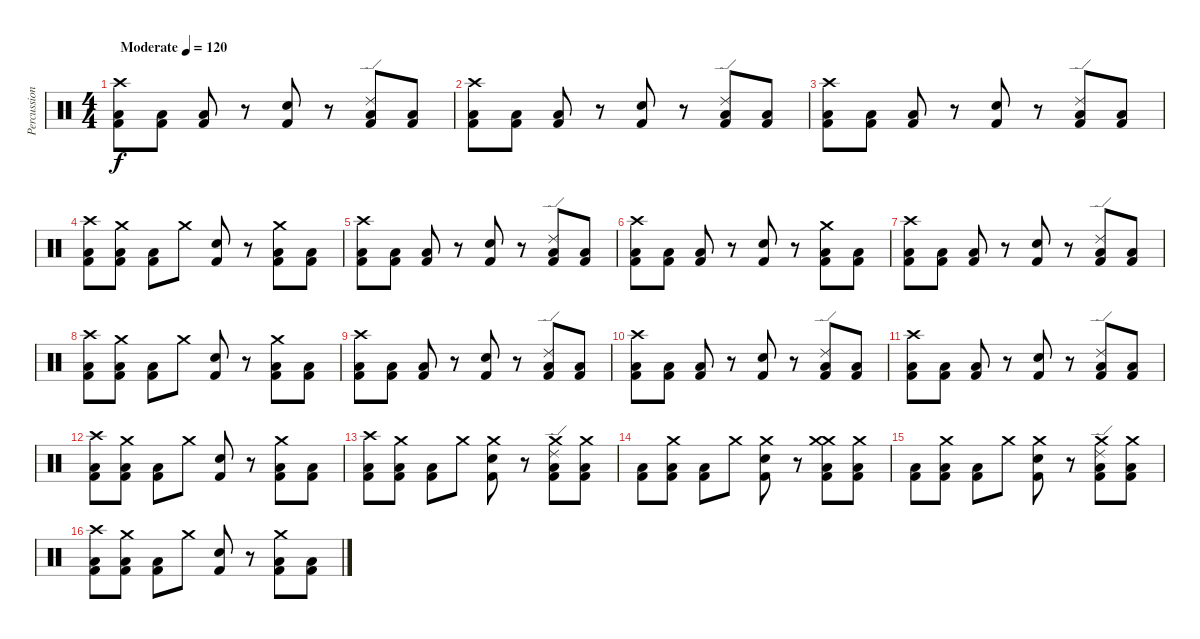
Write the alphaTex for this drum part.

\track ("Percussion" "Percussion") {instrument percussion}
\staff {score}
\articulation defaults
\ts (4 4)
\tempo (120 "Moderate")
\clef neutral
\ks c
("Kick (hit) 2" "Low Floor Tom (hit)" "Crash high (hit)").8{dy f} ("Kick (hit) 2" "Low Floor Tom (hit)").8 ("Kick (hit) 2" "Low Floor Tom (hit)").8 r.8 ("Kick (hit) 2" "Electric Snare (hit)").8 r.8 ("Kick (hit) 2" "Low Floor Tom (hit)" "Ride (edge) 2").8 ("Kick (hit) 2" "Low Floor Tom (hit)").8 |
("Kick (hit) 2" "Low Floor Tom (hit)" "Crash high (hit)").8 ("Kick (hit) 2" "Low Floor Tom (hit)").8 ("Kick (hit) 2" "Low Floor Tom (hit)").8 r.8 ("Kick (hit) 2" "Electric Snare (hit)").8 r.8 ("Kick (hit) 2" "Low Floor Tom (hit)" "Ride (edge) 2").8 ("Kick (hit) 2" "Low Floor Tom (hit)").8 |
("Kick (hit) 2" "Low Floor Tom (hit)" "Crash high (hit)").8 ("Kick (hit) 2" "Low Floor Tom (hit)").8 ("Kick (hit) 2" "Low Floor Tom (hit)").8 r.8 ("Kick (hit) 2" "Electric Snare (hit)").8 r.8 ("Kick (hit) 2" "Low Floor Tom (hit)" "Ride (edge) 2").8 ("Kick (hit) 2" "Low Floor Tom (hit)").8 |
("Kick (hit) 2" "Low Floor Tom (hit)" "Crash high (hit)").8 ("Kick (hit) 2" "Low Floor Tom (hit)" "Crash medium (hit)").8 ("Kick (hit) 2" "Low Floor Tom (hit)").8 "Crash medium (hit)".8 ("Kick (hit) 2" "Electric Snare (hit)").8 r.8 ("Kick (hit) 2" "Low Floor Tom (hit)" "Crash medium (hit)").8 ("Kick (hit) 2" "Low Floor Tom (hit)").8 |
("Kick (hit) 2" "Low Floor Tom (hit)" "Crash high (hit)").8 ("Kick (hit) 2" "Low Floor Tom (hit)").8 ("Kick (hit) 2" "Low Floor Tom (hit)").8 r.8 ("Kick (hit) 2" "Electric Snare (hit)").8 r.8 ("Kick (hit) 2" "Low Floor Tom (hit)" "Ride (edge) 2").8 ("Kick (hit) 2" "Low Floor Tom (hit)").8 |
("Kick (hit) 2" "Low Floor Tom (hit)" "Crash high (hit)").8 ("Kick (hit) 2" "Low Floor Tom (hit)").8 ("Kick (hit) 2" "Low Floor Tom (hit)").8 r.8 ("Kick (hit) 2" "Electric Snare (hit)").8 r.8 ("Kick (hit) 2" "Low Floor Tom (hit)" "Crash medium (hit)").8 ("Kick (hit) 2" "Low Floor Tom (hit)").8 |
("Kick (hit) 2" "Low Floor Tom (hit)" "Crash high (hit)").8 ("Kick (hit) 2" "Low Floor Tom (hit)").8 ("Kick (hit) 2" "Low Floor Tom (hit)").8 r.8 ("Kick (hit) 2" "Electric Snare (hit)").8 r.8 ("Kick (hit) 2" "Low Floor Tom (hit)" "Ride (edge) 2").8 ("Kick (hit) 2" "Low Floor Tom (hit)").8 |
("Kick (hit) 2" "Low Floor Tom (hit)" "Crash high (hit)").8 ("Kick (hit) 2" "Low Floor Tom (hit)" "Crash medium (hit)").8 ("Kick (hit) 2" "Low Floor Tom (hit)").8 "Crash medium (hit)".8 ("Kick (hit) 2" "Electric Snare (hit)").8 r.8 ("Kick (hit) 2" "Low Floor Tom (hit)" "Crash medium (hit)").8 ("Kick (hit) 2" "Low Floor Tom (hit)").8 |
("Kick (hit) 2" "Low Floor Tom (hit)" "Crash high (hit)").8 ("Kick (hit) 2" "Low Floor Tom (hit)").8 ("Kick (hit) 2" "Low Floor Tom (hit)").8 r.8 ("Kick (hit) 2" "Electric Snare (hit)").8 r.8 ("Kick (hit) 2" "Low Floor Tom (hit)" "Ride (edge) 2").8 ("Kick (hit) 2" "Low Floor Tom (hit)").8 |
("Kick (hit) 2" "Low Floor Tom (hit)" "Crash high (hit)").8 ("Kick (hit) 2" "Low Floor Tom (hit)").8 ("Kick (hit) 2" "Low Floor Tom (hit)").8 r.8 ("Kick (hit) 2" "Electric Snare (hit)").8 r.8 ("Kick (hit) 2" "Low Floor Tom (hit)" "Ride (edge) 2").8 ("Kick (hit) 2" "Low Floor Tom (hit)").8 |
("Kick (hit) 2" "Low Floor Tom (hit)" "Crash high (hit)").8 ("Kick (hit) 2" "Low Floor Tom (hit)").8 ("Kick (hit) 2" "Low Floor Tom (hit)").8 r.8 ("Kick (hit) 2" "Electric Snare (hit)").8 r.8 ("Kick (hit) 2" "Low Floor Tom (hit)" "Ride (edge) 2").8 ("Kick (hit) 2" "Low Floor Tom (hit)").8 |
("Kick (hit) 2" "Low Floor Tom (hit)" "Crash high (hit)").8 ("Kick (hit) 2" "Low Floor Tom (hit)" "Crash medium (hit)").8 ("Kick (hit) 2" "Low Floor Tom (hit)").8 "Crash medium (hit)".8 ("Kick (hit) 2" "Electric Snare (hit)").8 r.8 ("Kick (hit) 2" "Low Floor Tom (hit)" "Crash medium (hit)").8 ("Kick (hit) 2" "Low Floor Tom (hit)").8 |
("Kick (hit) 2" "Low Floor Tom (hit)" "Crash high (hit)").8 ("Kick (hit) 2" "Low Floor Tom (hit)" "Crash medium (hit)").8 ("Kick (hit) 2" "Low Floor Tom (hit)").8 "Crash medium (hit)".8 ("Kick (hit) 2" "Electric Snare (hit)" "Crash medium (hit)").8 r.8 ("Kick (hit) 2" "Low Floor Tom (hit)" "Ride (edge) 2" "Crash medium (hit)").8 ("Kick (hit) 2" "Low Floor Tom (hit)" "Crash medium (hit)").8 |
("Kick (hit) 2" "Low Floor Tom (hit)").8 ("Kick (hit) 2" "Low Floor Tom (hit)" "Crash medium (hit)").8 ("Kick (hit) 2" "Low Floor Tom (hit)").8 "Crash medium (hit)".8 ("Kick (hit) 2" "Electric Snare (hit)" "Crash medium (hit)").8 r.8 ("Kick (hit) 2" "Low Floor Tom (hit)" "Crash medium (hit)" "Crash medium (hit)").8 ("Kick (hit) 2" "Low Floor Tom (hit)" "Crash medium (hit)").8 |
("Kick (hit) 2" "Low Floor Tom (hit)").8 ("Kick (hit) 2" "Low Floor Tom (hit)" "Crash medium (hit)").8 ("Kick (hit) 2" "Low Floor Tom (hit)").8 "Crash medium (hit)".8 ("Kick (hit) 2" "Electric Snare (hit)" "Crash medium (hit)").8 r.8 ("Kick (hit) 2" "Low Floor Tom (hit)" "Ride (edge) 2" "Crash medium (hit)").8 ("Kick (hit) 2" "Low Floor Tom (hit)" "Crash medium (hit)").8 |
("Kick (hit) 2" "Low Floor Tom (hit)" "Crash high (hit)").8 ("Kick (hit) 2" "Low Floor Tom (hit)" "Crash medium (hit)").8 ("Kick (hit) 2" "Low Floor Tom (hit)").8 "Crash medium (hit)".8 ("Kick (hit) 2" "Electric Snare (hit)").8 r.8 ("Kick (hit) 2" "Low Floor Tom (hit)" "Crash medium (hit)").8 ("Kick (hit) 2" "Low Floor Tom (hit)").8
